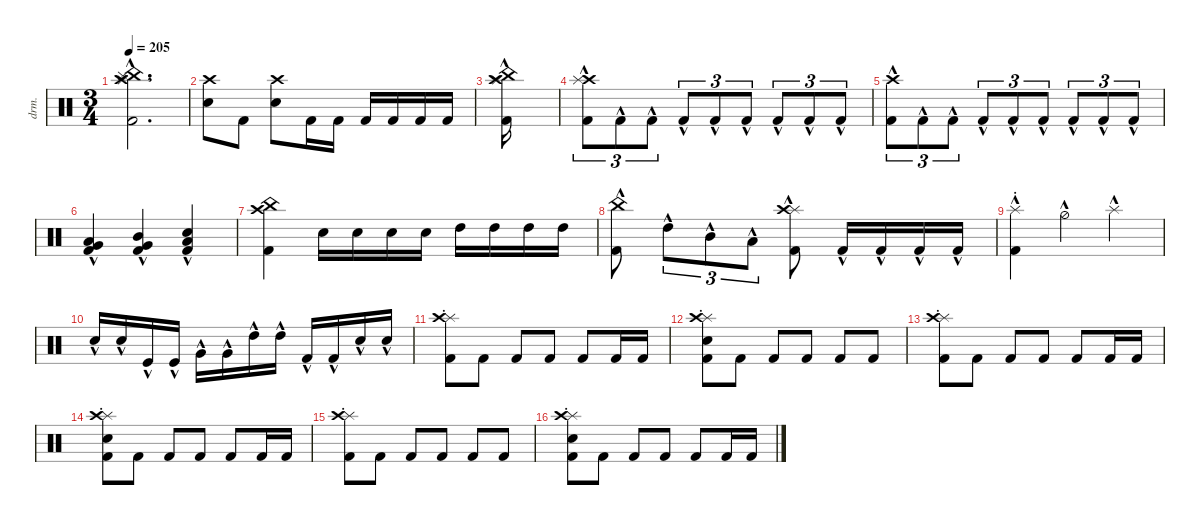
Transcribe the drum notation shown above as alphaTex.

\defaultSystemsLayout 4
\hideDynamics
\bracketExtendMode nobrackets
\otherSystemsTrackNameOrientation horizontal
\track ("Drumkit" "drm.") {instrument percussion}
\staff {score}
\articulation defaults
\ts (3 4)
\tempo 205
\clef neutral
\ks c
("China (hit)"{hac} "Cymbal (hit)"{hac} "Splash (hit)"{hac} "Crash high (hit)"{hac} "Kick (hit) 2"{hac}).2{d dy mf} |
("Crash high (hit)" "Snare (hit) 2").8 "Kick (hit) 2".8 ("Snare (hit) 2" "Crash high (hit)").8 "Kick (hit) 2".16 "Kick (hit) 2".16 "Kick (hit) 2".16 "Kick (hit) 2".16 "Kick (hit) 2".16 "Kick (hit) 2".16 |
("Splash (hit)" "Crash high (hit)" "China (hit)" "Kick (hit) 2"{hac}).16 |
("Kick (hit) 2"{hac} "Crash high (hit)"{hac} "Splash (hit)"{hac}).8{tu (3 2)} "Kick (hit) 2"{hac}.8{tu (3 2)} "Kick (hit) 2"{hac}.8{tu (3 2)} "Kick (hit) 2"{hac}.8{tu (3 2)} "Kick (hit) 2"{hac}.8{tu (3 2)} "Kick (hit) 2"{hac}.8{tu (3 2)} "Kick (hit) 2"{hac}.8{tu (3 2)} "Kick (hit) 2"{hac}.8{tu (3 2)} "Kick (hit) 2"{hac}.8{tu (3 2)} |
("Kick (hit) 2"{hac} "Crash high (hit)"{hac}).8{tu (3 2)} "Kick (hit) 2"{hac}.8{tu (3 2)} "Kick (hit) 2"{hac}.8{tu (3 2)} "Kick (hit) 2"{hac}.8{tu (3 2)} "Kick (hit) 2"{hac}.8{tu (3 2)} "Kick (hit) 2"{hac}.8{tu (3 2)} "Kick (hit) 2"{hac}.8{tu (3 2)} "Kick (hit) 2"{hac}.8{tu (3 2)} "Kick (hit) 2"{hac}.8{tu (3 2)} |
("Kick (hit) 2"{hac} "Very Low Tom (hit)"{hac} "Low Tom (hit)"{hac}).4 ("Very Low Tom (hit)"{hac} "Kick (hit) 2"{hac} "Mid Tom (hit)"{hac}).4 ("Kick (hit) 2"{hac} "Low Tom (hit)"{hac} "Snare (hit) 2"{hac}).4 |
("China (hit)" "Crash high (hit)" "Kick (hit) 2").4 "Snare (hit) 2".16 "Snare (hit) 2".16 "Snare (hit) 2".16 "Snare (hit) 2".16 "High Tom (hit)".16 "High Tom (hit)".16 "High Tom (hit)".16 "High Tom (hit)".16 |
("China (hit)"{hac} "Kick (hit) 2"{hac}).8 "High Tom (hit)"{hac}.8{tu (3 2)} "Mid Tom (hit)"{hac}.8{tu (3 2)} "Low Tom (hit)"{hac}.8{tu (3 2)} ("Splash (hit)"{hac} "Crash high (hit)"{hac} "Kick (hit) 2"{hac}).8 "Kick (hit) 2"{hac}.16 "Kick (hit) 2"{hac}.16 "Kick (hit) 2"{hac}.16 "Kick (hit) 2"{hac}.16 |
("Splash (choke)"{hac} "Kick (hit) 2"{hac}).4 "Hi-Hat (half)"{hac}.4 "Splash (hit)"{hac}.4 |
"Snare (hit) 2"{hac}.16 "Snare (hit) 2"{hac}.16 "Kick (hit)"{hac}.16 "Kick (hit)"{hac}.16 "Very Low Tom (hit)"{hac}.16 "Very Low Tom (hit)"{hac}.16 "High Tom (hit)"{hac}.16 "High Tom (hit)"{hac}.16 "Kick (hit) 2"{hac}.16 "Kick (hit) 2"{hac}.16 "Snare (hit) 2"{hac}.16 "Snare (hit) 2"{hac}.16 |
("Kick (hit) 2" "Splash (choke)" "Crash high (hit)").8 "Kick (hit) 2".8 "Kick (hit) 2".8 "Kick (hit) 2".8 "Kick (hit) 2".8 "Kick (hit) 2".16 "Kick (hit) 2".16 |
("Kick (hit) 2" "Snare (hit) 2" "Splash (choke)" "Crash high (hit)").8 "Kick (hit) 2".8 "Kick (hit) 2".8 "Kick (hit) 2".8 "Kick (hit) 2".8 "Kick (hit) 2".8 |
("Kick (hit) 2" "Splash (choke)" "Crash high (hit)").8 "Kick (hit) 2".8 "Kick (hit) 2".8 "Kick (hit) 2".8 "Kick (hit) 2".8 "Kick (hit) 2".16 "Kick (hit) 2".16 |
("Kick (hit) 2" "Splash (choke)" "Crash high (hit)" "Snare (hit) 2").8 "Kick (hit) 2".8 "Kick (hit) 2".8 "Kick (hit) 2".8 "Kick (hit) 2".8 "Kick (hit) 2".16 "Kick (hit) 2".16 |
("Kick (hit) 2" "Splash (choke)" "Crash high (hit)").8 "Kick (hit) 2".8 "Kick (hit) 2".8 "Kick (hit) 2".8 "Kick (hit) 2".8 "Kick (hit) 2".8 |
("Kick (hit) 2" "Snare (hit) 2" "Splash (choke)" "Crash high (hit)").8 "Kick (hit) 2".8 "Kick (hit) 2".8 "Kick (hit) 2".8 "Kick (hit) 2".8 "Kick (hit) 2".16 "Kick (hit) 2".16
